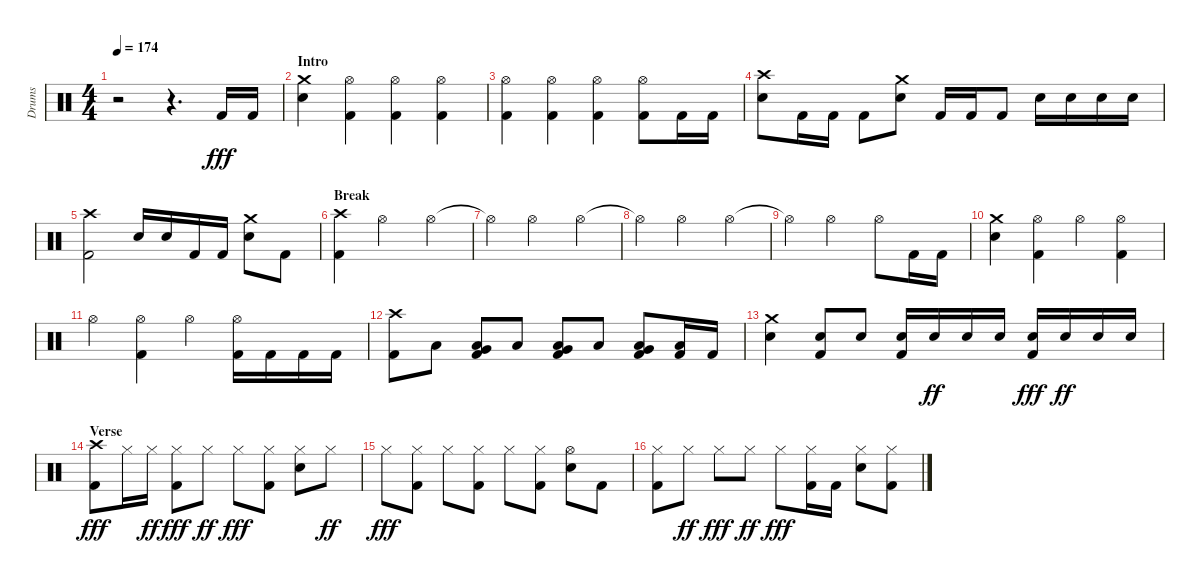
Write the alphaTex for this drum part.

\track ("Drums" "Drums") {instrument percussion}
\staff {score}
\articulation defaults
\ts (4 4)
\tempo 174
\clef neutral
\ks aminor
r.2{dy fff} r.4{d} "Kick (hit) 2".16 "Kick (hit) 2".16 |
\section ("" "Intro")
("Snare (hit) 2" "Crash medium (hit)").4 ("Kick (hit) 2" "Hi-Hat (open)").4 ("Kick (hit) 2" "Hi-Hat (open)").4 ("Kick (hit) 2" "Hi-Hat (open)").4 |
("Kick (hit) 2" "Hi-Hat (open)").4 ("Kick (hit) 2" "Hi-Hat (open)").4 ("Kick (hit) 2" "Hi-Hat (open)").4 ("Kick (hit) 2" "Hi-Hat (open)").8 "Kick (hit) 2".16 "Kick (hit) 2".16 |
("Snare (hit) 2" "Crash high (hit)").8 "Kick (hit) 2".16 "Kick (hit) 2".16 "Kick (hit) 2".8 ("Snare (hit) 2" "Crash medium (hit)").8 "Kick (hit) 2".16 "Kick (hit) 2".16 "Kick (hit) 2".8 "Snare (hit) 2".16 "Snare (hit) 2".16 "Snare (hit) 2".16 "Snare (hit) 2".16 |
("Kick (hit) 2" "Crash high (hit)").2 "Snare (hit) 2".16 "Snare (hit) 2".16 "Kick (hit) 2".16 "Kick (hit) 2".16 ("Snare (hit) 2" "Crash medium (hit)").8 "Kick (hit) 2".8 |
\section ("" "Break")
("Kick (hit) 2" "Crash high (hit)").4 "Hi-Hat (open)".2 "Hi-Hat (open)".4 |
"Hi-Hat (open)"{t}.4 "Hi-Hat (open)".2 "Hi-Hat (open)".4 |
"Hi-Hat (open)"{t}.4 "Hi-Hat (open)".2 "Hi-Hat (open)".4 |
"Hi-Hat (open)"{t}.4 "Hi-Hat (open)".2 "Hi-Hat (open)".8 "Kick (hit) 2".16 "Kick (hit) 2".16 |
("Snare (hit) 2" "Crash medium (hit)").4 ("Kick (hit) 2" "Hi-Hat (open)").4 "Hi-Hat (open)".4 ("Kick (hit) 2" "Hi-Hat (open)").4 |
"Hi-Hat (open)".4 ("Kick (hit) 2" "Hi-Hat (open)").4 "Hi-Hat (open)".4 ("Kick (hit) 2" "Hi-Hat (open)").16 "Kick (hit) 2".16 "Kick (hit) 2".16 "Kick (hit) 2".16 |
("Kick (hit) 2" "Crash high (hit)").8 "Low Floor Tom (hit)".8 ("Kick (hit) 2" "Low Floor Tom (hit)" "Very Low Tom (hit)").8 "Low Floor Tom (hit)".8 ("Kick (hit) 2" "Low Floor Tom (hit)" "Very Low Tom (hit)").8 "Low Floor Tom (hit)".8 ("Kick (hit) 2" "Low Floor Tom (hit)" "Very Low Tom (hit)").8 ("Kick (hit) 2" "Low Floor Tom (hit)").16 "Kick (hit) 2".16 |
("Snare (hit) 2" "Crash medium (hit)").4 ("Kick (hit) 2" "Snare (hit) 2").8 "Snare (hit) 2".8 ("Kick (hit) 2" "Snare (hit) 2").16 "Snare (hit) 2".16{dy ff} "Snare (hit) 2".16 "Snare (hit) 2".16 ("Kick (hit) 2" "Snare (hit) 2").16{dy fff} "Snare (hit) 2".16{dy ff} "Snare (hit) 2".16 "Snare (hit) 2".16 |
\section ("" "Verse")
("Kick (hit) 2" "Crash high (hit)").8{dy fff} "Hi-Hat (closed)".16 "Hi-Hat (closed)".16{dy ff} ("Kick (hit) 2" "Hi-Hat (closed)").8{dy fff} "Hi-Hat (closed)".8{dy ff} "Hi-Hat (closed)".8{dy fff} ("Kick (hit) 2" "Hi-Hat (closed)").8 ("Snare (hit) 2" "Hi-Hat (closed)").8 "Hi-Hat (closed)".8{dy ff} |
"Hi-Hat (closed)".8{dy fff} ("Kick (hit) 2" "Hi-Hat (closed)").8 "Hi-Hat (closed)".8 ("Kick (hit) 2" "Hi-Hat (closed)").8 "Hi-Hat (closed)".8 ("Kick (hit) 2" "Hi-Hat (closed)").8 ("Snare (hit) 2" "Hi-Hat (open)").8 "Kick (hit) 2".8 |
("Kick (hit) 2" "Hi-Hat (closed)").8 "Hi-Hat (closed)".8{dy ff} "Hi-Hat (closed)".8{dy fff} "Hi-Hat (closed)".8{dy ff} "Hi-Hat (closed)".8{dy fff} ("Kick (hit) 2" "Hi-Hat (closed)").16 "Kick (hit) 2".16 ("Snare (hit) 2" "Hi-Hat (closed)").8 ("Kick (hit) 2" "Hi-Hat (closed)").8
